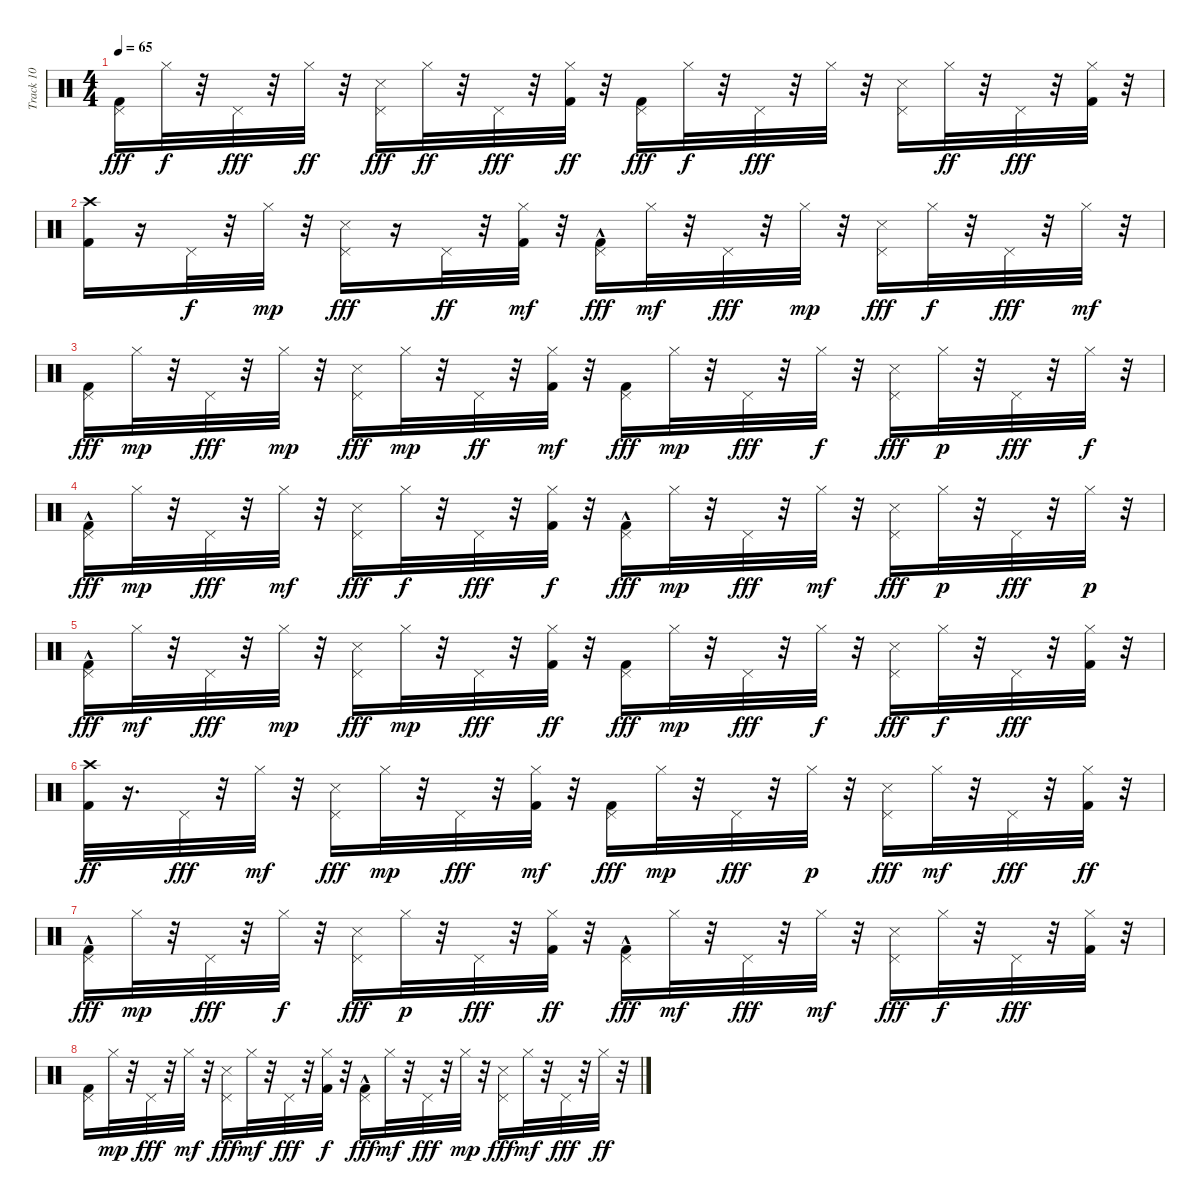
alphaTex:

\track ("Track 10" "Track 10") {instrument percussion}
\staff {score}
\articulation defaults
\ts (4 4)
\tempo 65
\clef neutral
\ks c
("Kick (hit) 2" "Pedal Hi-Hat (hit)").16{dy fff} "Hi-Hat (closed)".32{dy f} r.32 "Pedal Hi-Hat (hit)".32{dy fff} r.32 "Hi-Hat (closed)".32{dy ff} r.32 ("Snare (side stick) 3" "Pedal Hi-Hat (hit)").16{dy fff} "Hi-Hat (closed)".32{dy ff} r.32 "Pedal Hi-Hat (hit)".32{dy fff} r.32 ("Kick (hit) 2" "Hi-Hat (closed)").32{dy ff} r.32 ("Kick (hit) 2" "Pedal Hi-Hat (hit)").16{dy fff} "Hi-Hat (closed)".32{dy f} r.32 "Pedal Hi-Hat (hit)".32{dy fff} r.32 "Hi-Hat (closed)".32 r.32 ("Snare (side stick) 3" "Pedal Hi-Hat (hit)").16 "Hi-Hat (closed)".32{dy ff} r.32 "Pedal Hi-Hat (hit)".32{dy fff} r.32 ("Hi-Hat (closed)" "Kick (hit) 2").32 r.32 |
("Kick (hit) 2" "Crash high (hit)").16 r.16 "Pedal Hi-Hat (hit)".32{dy f} r.32 "Hi-Hat (closed)".32{dy mp} r.32 ("Pedal Hi-Hat (hit)" "Snare (side stick) 3").16{dy fff} r.16 "Pedal Hi-Hat (hit)".32{dy ff} r.32 ("Kick (hit) 2" "Hi-Hat (closed)").32{dy mf} r.32 ("Kick (hit) 2"{hac} "Pedal Hi-Hat (hit)").16{dy fff} "Hi-Hat (closed)".32{dy mf} r.32 "Pedal Hi-Hat (hit)".32{dy fff} r.32 "Hi-Hat (closed)".32{dy mp} r.32 ("Snare (side stick) 3" "Pedal Hi-Hat (hit)").16{dy fff} "Hi-Hat (closed)".32{dy f} r.32 "Pedal Hi-Hat (hit)".32{dy fff} r.32 "Hi-Hat (closed)".32{dy mf} r.32 |
("Kick (hit) 2" "Pedal Hi-Hat (hit)").16{dy fff} "Hi-Hat (closed)".32{dy mp} r.32 "Pedal Hi-Hat (hit)".32{dy fff} r.32 "Hi-Hat (closed)".32{dy mp} r.32 ("Snare (side stick) 3" "Pedal Hi-Hat (hit)").16{dy fff} "Hi-Hat (closed)".32{dy mp} r.32 "Pedal Hi-Hat (hit)".32{dy ff} r.32 ("Hi-Hat (closed)" "Kick (hit) 2").32{dy mf} r.32 ("Kick (hit) 2" "Pedal Hi-Hat (hit)").16{dy fff} "Hi-Hat (closed)".32{dy mp} r.32 "Pedal Hi-Hat (hit)".32{dy fff} r.32 "Hi-Hat (closed)".32{dy f} r.32 ("Snare (side stick) 3" "Pedal Hi-Hat (hit)").16{dy fff} "Hi-Hat (closed)".32{dy p} r.32 "Pedal Hi-Hat (hit)".32{dy fff} r.32 "Hi-Hat (closed)".32{dy f} r.32 |
("Kick (hit) 2"{hac} "Pedal Hi-Hat (hit)").16{dy fff} "Hi-Hat (closed)".32{dy mp} r.32 "Pedal Hi-Hat (hit)".32{dy fff} r.32 "Hi-Hat (closed)".32{dy mf} r.32 ("Snare (side stick) 3" "Pedal Hi-Hat (hit)").16{dy fff} "Hi-Hat (closed)".32{dy f} r.32 "Pedal Hi-Hat (hit)".32{dy fff} r.32 ("Hi-Hat (closed)" "Kick (hit) 2").32{dy f} r.32 ("Pedal Hi-Hat (hit)" "Kick (hit) 2"{hac}).16{dy fff} "Hi-Hat (closed)".32{dy mp} r.32 "Pedal Hi-Hat (hit)".32{dy fff} r.32 "Hi-Hat (closed)".32{dy mf} r.32 ("Snare (side stick) 3" "Pedal Hi-Hat (hit)").16{dy fff} "Hi-Hat (closed)".32{dy p} r.32 "Pedal Hi-Hat (hit)".32{dy fff} r.32 "Hi-Hat (closed)".32{dy p} r.32 |
("Kick (hit) 2"{hac} "Pedal Hi-Hat (hit)").16{dy fff} "Hi-Hat (closed)".32{dy mf} r.32 "Pedal Hi-Hat (hit)".32{dy fff} r.32 "Hi-Hat (closed)".32{dy mp} r.32 ("Snare (side stick) 3" "Pedal Hi-Hat (hit)").16{dy fff} "Hi-Hat (closed)".32{dy mp} r.32 "Pedal Hi-Hat (hit)".32{dy fff} r.32 ("Kick (hit) 2" "Hi-Hat (closed)").32{dy ff} r.32 ("Kick (hit) 2" "Pedal Hi-Hat (hit)").16{dy fff} "Hi-Hat (closed)".32{dy mp} r.32 "Pedal Hi-Hat (hit)".32{dy fff} r.32 "Hi-Hat (closed)".32{dy f} r.32 ("Snare (side stick) 3" "Pedal Hi-Hat (hit)").16{dy fff} "Hi-Hat (closed)".32{dy f} r.32 "Pedal Hi-Hat (hit)".32{dy fff} r.32 ("Kick (hit) 2" "Hi-Hat (closed)").32 r.32 |
("Crash high (hit)" "Kick (hit) 2").32{dy ff} r.16{d} "Pedal Hi-Hat (hit)".32{dy fff} r.32 "Hi-Hat (closed)".32{dy mf} r.32 ("Snare (side stick) 3" "Pedal Hi-Hat (hit)").16{dy fff} "Hi-Hat (closed)".32{dy mp} r.32 "Pedal Hi-Hat (hit)".32{dy fff} r.32 ("Kick (hit) 2" "Hi-Hat (closed)").32{dy mf} r.32 ("Kick (hit) 2" "Pedal Hi-Hat (hit)").16{dy fff} "Hi-Hat (closed)".32{dy mp} r.32 "Pedal Hi-Hat (hit)".32{dy fff} r.32 "Hi-Hat (closed)".32{dy p} r.32 ("Snare (side stick) 3" "Pedal Hi-Hat (hit)").16{dy fff} "Hi-Hat (closed)".32{dy mf} r.32 "Pedal Hi-Hat (hit)".32{dy fff} r.32 ("Kick (hit) 2" "Hi-Hat (closed)").32{dy ff} r.32 |
("Kick (hit) 2"{hac} "Pedal Hi-Hat (hit)").16{dy fff} "Hi-Hat (closed)".32{dy mp} r.32 "Pedal Hi-Hat (hit)".32{dy fff} r.32 "Hi-Hat (closed)".32{dy f} r.32 ("Snare (side stick) 3" "Pedal Hi-Hat (hit)").16{dy fff} "Hi-Hat (closed)".32{dy p} r.32 "Pedal Hi-Hat (hit)".32{dy fff} r.32 ("Kick (hit) 2" "Hi-Hat (closed)").32{dy ff} r.32 ("Kick (hit) 2"{hac} "Pedal Hi-Hat (hit)").16{dy fff} "Hi-Hat (closed)".32{dy mf} r.32 "Pedal Hi-Hat (hit)".32{dy fff} r.32 "Hi-Hat (closed)".32{dy mf} r.32 ("Snare (side stick) 3" "Pedal Hi-Hat (hit)").16{dy fff} "Hi-Hat (closed)".32{dy f} r.32 "Pedal Hi-Hat (hit)".32{dy fff} r.32 ("Kick (hit) 2" "Hi-Hat (closed)").32 r.32 |
("Kick (hit) 2" "Pedal Hi-Hat (hit)").16 "Hi-Hat (closed)".32{dy mp} r.32 "Pedal Hi-Hat (hit)".32{dy fff} r.32 "Hi-Hat (closed)".32{dy mf} r.32 ("Snare (side stick) 3" "Pedal Hi-Hat (hit)").16{dy fff} "Hi-Hat (closed)".32{dy mf} r.32 "Pedal Hi-Hat (hit)".32{dy fff} r.32 ("Kick (hit) 2" "Hi-Hat (closed)").32{dy f} r.32 ("Kick (hit) 2"{hac} "Pedal Hi-Hat (hit)").16{dy fff} "Hi-Hat (closed)".32{dy mf} r.32 "Pedal Hi-Hat (hit)".32{dy fff} r.32 "Hi-Hat (closed)".32{dy mp} r.32 ("Snare (side stick) 3" "Pedal Hi-Hat (hit)").16{dy fff} "Hi-Hat (closed)".32{dy mf} r.32 "Pedal Hi-Hat (hit)".32{dy fff} r.32 "Hi-Hat (closed)".32{dy ff} r.32
